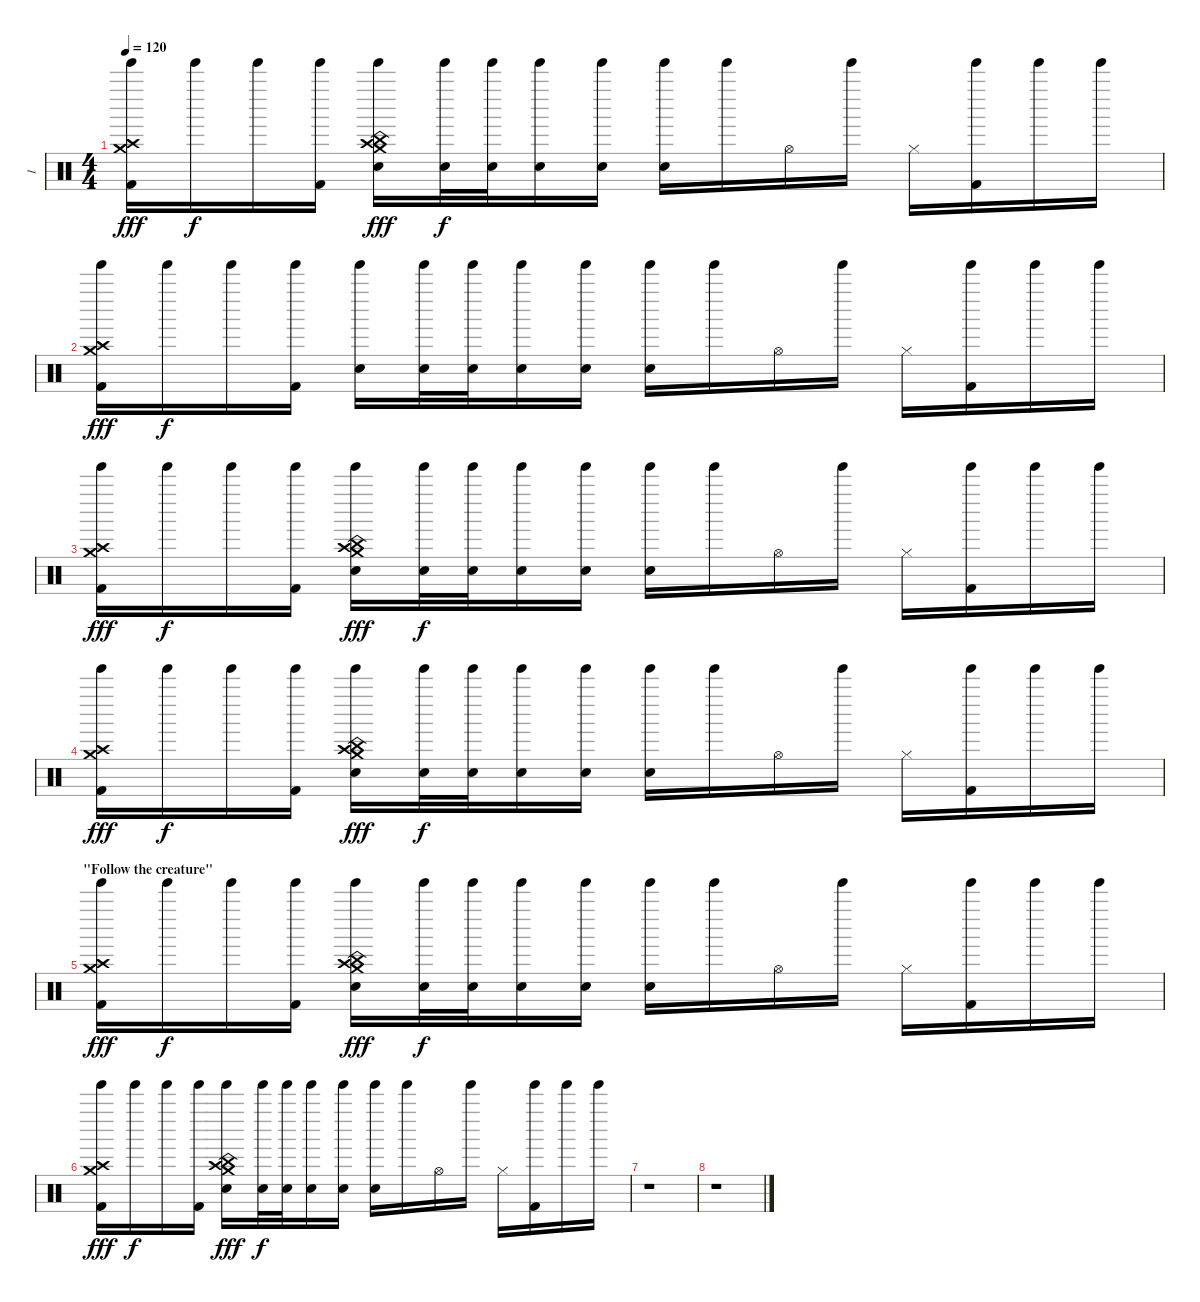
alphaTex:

\track ("I" "I") {instrument percussion}
\staff {score}
\articulation defaults
\ts (4 4)
\tempo 120
\clef neutral
\ks c
("Crash high (hit)" "Crash medium (hit)" "Tinkle Bell (hit)" "Kick (hit) 2").16{dy fff} "Tinkle Bell (hit)".16{dy f} "Tinkle Bell (hit)".16 ("Tinkle Bell (hit)" "Kick (hit) 2").16 ("Crash high (hit)" "Crash medium (hit)" "Tinkle Bell (hit)" "Snare (hit) 2" "China (hit)").16{dy fff} ("Tinkle Bell (hit)" "Snare (hit) 2").32{dy f} ("Tinkle Bell (hit)" "Snare (hit) 2").32 ("Tinkle Bell (hit)" "Snare (hit) 2").16 ("Tinkle Bell (hit)" "Snare (hit) 2").16 ("Tinkle Bell (hit)" "Snare (hit) 2").16 "Tinkle Bell (hit)".16 "Hi-Hat (open)".16 "Tinkle Bell (hit)".16 "Hi-Hat (closed)".16 ("Tinkle Bell (hit)" "Kick (hit) 2").16 "Tinkle Bell (hit)".16 "Tinkle Bell (hit)".16 |
("Crash high (hit)" "Crash medium (hit)" "Tinkle Bell (hit)" "Kick (hit) 2").16{dy fff} "Tinkle Bell (hit)".16{dy f} "Tinkle Bell (hit)".16 ("Tinkle Bell (hit)" "Kick (hit) 2").16 ("Tinkle Bell (hit)" "Snare (hit) 2").16 ("Tinkle Bell (hit)" "Snare (hit) 2").32 ("Tinkle Bell (hit)" "Snare (hit) 2").32 ("Tinkle Bell (hit)" "Snare (hit) 2").16 ("Tinkle Bell (hit)" "Snare (hit) 2").16 ("Tinkle Bell (hit)" "Snare (hit) 2").16 "Tinkle Bell (hit)".16 "Hi-Hat (open)".16 "Tinkle Bell (hit)".16 "Hi-Hat (closed)".16 ("Tinkle Bell (hit)" "Kick (hit) 2").16 "Tinkle Bell (hit)".16 "Tinkle Bell (hit)".16 |
("Crash high (hit)" "Crash medium (hit)" "Tinkle Bell (hit)" "Kick (hit) 2").16{dy fff} "Tinkle Bell (hit)".16{dy f} "Tinkle Bell (hit)".16 ("Tinkle Bell (hit)" "Kick (hit) 2").16 ("Crash high (hit)" "Crash medium (hit)" "Tinkle Bell (hit)" "Snare (hit) 2" "China (hit)").16{dy fff} ("Tinkle Bell (hit)" "Snare (hit) 2").32{dy f} ("Tinkle Bell (hit)" "Snare (hit) 2").32 ("Tinkle Bell (hit)" "Snare (hit) 2").16 ("Tinkle Bell (hit)" "Snare (hit) 2").16 ("Tinkle Bell (hit)" "Snare (hit) 2").16 "Tinkle Bell (hit)".16 "Hi-Hat (open)".16 "Tinkle Bell (hit)".16 "Hi-Hat (closed)".16 ("Tinkle Bell (hit)" "Kick (hit) 2").16 "Tinkle Bell (hit)".16 "Tinkle Bell (hit)".16 |
("Crash high (hit)" "Crash medium (hit)" "Tinkle Bell (hit)" "Kick (hit) 2").16{dy fff} "Tinkle Bell (hit)".16{dy f} "Tinkle Bell (hit)".16 ("Tinkle Bell (hit)" "Kick (hit) 2").16 ("Crash high (hit)" "Crash medium (hit)" "Tinkle Bell (hit)" "Snare (hit) 2" "China (hit)").16{dy fff} ("Tinkle Bell (hit)" "Snare (hit) 2").32{dy f} ("Tinkle Bell (hit)" "Snare (hit) 2").32 ("Tinkle Bell (hit)" "Snare (hit) 2").16 ("Tinkle Bell (hit)" "Snare (hit) 2").16 ("Tinkle Bell (hit)" "Snare (hit) 2").16 "Tinkle Bell (hit)".16 "Hi-Hat (open)".16 "Tinkle Bell (hit)".16 "Hi-Hat (closed)".16 ("Tinkle Bell (hit)" "Kick (hit) 2").16 "Tinkle Bell (hit)".16 "Tinkle Bell (hit)".16 |
\section ("" "\"Follow the creature\"")
("Crash high (hit)" "Crash medium (hit)" "Tinkle Bell (hit)" "Kick (hit) 2").16{dy fff volume 0} "Tinkle Bell (hit)".16{dy f} "Tinkle Bell (hit)".16 ("Tinkle Bell (hit)" "Kick (hit) 2").16 ("Crash high (hit)" "Crash medium (hit)" "Tinkle Bell (hit)" "Snare (hit) 2" "China (hit)").16{dy fff} ("Tinkle Bell (hit)" "Snare (hit) 2").32{dy f} ("Tinkle Bell (hit)" "Snare (hit) 2").32 ("Tinkle Bell (hit)" "Snare (hit) 2").16 ("Tinkle Bell (hit)" "Snare (hit) 2").16 ("Tinkle Bell (hit)" "Snare (hit) 2").16 "Tinkle Bell (hit)".16 "Hi-Hat (open)".16 "Tinkle Bell (hit)".16 "Hi-Hat (closed)".16 ("Tinkle Bell (hit)" "Kick (hit) 2").16 "Tinkle Bell (hit)".16 "Tinkle Bell (hit)".16 |
("Crash high (hit)" "Crash medium (hit)" "Tinkle Bell (hit)" "Kick (hit) 2").16{dy fff} "Tinkle Bell (hit)".16{dy f} "Tinkle Bell (hit)".16 ("Tinkle Bell (hit)" "Kick (hit) 2").16 ("Crash high (hit)" "Crash medium (hit)" "Tinkle Bell (hit)" "Snare (hit) 2" "China (hit)").16{dy fff} ("Tinkle Bell (hit)" "Snare (hit) 2").32{dy f} ("Tinkle Bell (hit)" "Snare (hit) 2").32 ("Tinkle Bell (hit)" "Snare (hit) 2").16 ("Tinkle Bell (hit)" "Snare (hit) 2").16 ("Tinkle Bell (hit)" "Snare (hit) 2").16 "Tinkle Bell (hit)".16 "Hi-Hat (open)".16 "Tinkle Bell (hit)".16 "Hi-Hat (closed)".16 ("Tinkle Bell (hit)" "Kick (hit) 2").16 "Tinkle Bell (hit)".16 "Tinkle Bell (hit)".16 |
r.1 |
r.1
